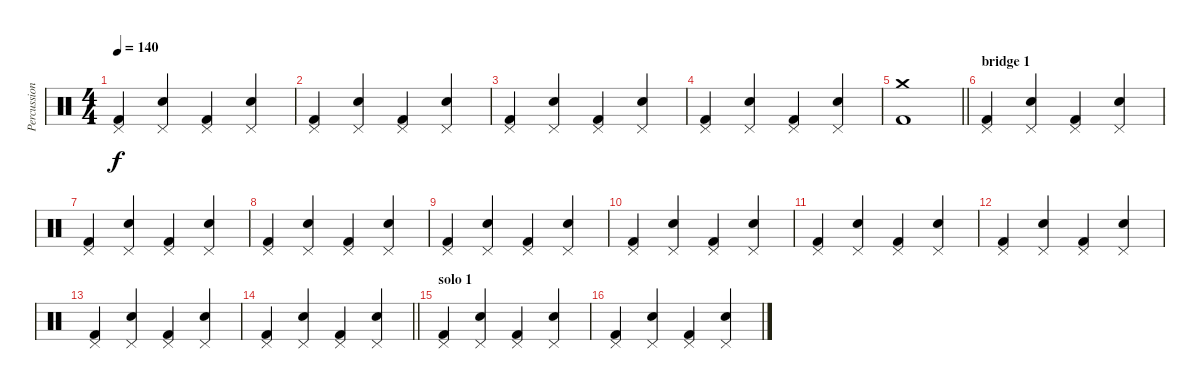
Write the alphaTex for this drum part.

\track ("Percussion" "Percussion") {instrument percussion}
\staff {score}
\articulation defaults
\ts (4 4)
\tempo 140
\clef neutral
\ks c
("Kick (hit) 2" "Pedal Hi-Hat (hit)").4{dy f} ("Snare (hit) 2" "Pedal Hi-Hat (hit)").4 ("Kick (hit) 2" "Pedal Hi-Hat (hit)").4 ("Snare (hit) 2" "Pedal Hi-Hat (hit)").4 |
("Kick (hit) 2" "Pedal Hi-Hat (hit)").4 ("Snare (hit) 2" "Pedal Hi-Hat (hit)").4 ("Kick (hit) 2" "Pedal Hi-Hat (hit)").4 ("Snare (hit) 2" "Pedal Hi-Hat (hit)").4 |
("Kick (hit) 2" "Pedal Hi-Hat (hit)").4 ("Snare (hit) 2" "Pedal Hi-Hat (hit)").4 ("Kick (hit) 2" "Pedal Hi-Hat (hit)").4 ("Snare (hit) 2" "Pedal Hi-Hat (hit)").4 |
("Kick (hit) 2" "Pedal Hi-Hat (hit)").4 ("Snare (hit) 2" "Pedal Hi-Hat (hit)").4 ("Kick (hit) 2" "Pedal Hi-Hat (hit)").4 ("Snare (hit) 2" "Pedal Hi-Hat (hit)").4 |
\barLineRight lightlight
("Kick (hit) 2" "Crash medium (hit)").1 |
\section ("" "bridge 1")
("Kick (hit) 2" "Pedal Hi-Hat (hit)").4 ("Snare (hit) 2" "Pedal Hi-Hat (hit)").4 ("Kick (hit) 2" "Pedal Hi-Hat (hit)").4 ("Snare (hit) 2" "Pedal Hi-Hat (hit)").4 |
("Kick (hit) 2" "Pedal Hi-Hat (hit)").4 ("Snare (hit) 2" "Pedal Hi-Hat (hit)").4 ("Kick (hit) 2" "Pedal Hi-Hat (hit)").4 ("Snare (hit) 2" "Pedal Hi-Hat (hit)").4 |
("Kick (hit) 2" "Pedal Hi-Hat (hit)").4 ("Snare (hit) 2" "Pedal Hi-Hat (hit)").4 ("Kick (hit) 2" "Pedal Hi-Hat (hit)").4 ("Snare (hit) 2" "Pedal Hi-Hat (hit)").4 |
("Kick (hit) 2" "Pedal Hi-Hat (hit)").4 ("Snare (hit) 2" "Pedal Hi-Hat (hit)").4 ("Kick (hit) 2" "Pedal Hi-Hat (hit)").4 ("Snare (hit) 2" "Pedal Hi-Hat (hit)").4 |
("Kick (hit) 2" "Pedal Hi-Hat (hit)").4 ("Snare (hit) 2" "Pedal Hi-Hat (hit)").4 ("Kick (hit) 2" "Pedal Hi-Hat (hit)").4 ("Snare (hit) 2" "Pedal Hi-Hat (hit)").4 |
("Kick (hit) 2" "Pedal Hi-Hat (hit)").4 ("Snare (hit) 2" "Pedal Hi-Hat (hit)").4 ("Kick (hit) 2" "Pedal Hi-Hat (hit)").4 ("Snare (hit) 2" "Pedal Hi-Hat (hit)").4 |
("Kick (hit) 2" "Pedal Hi-Hat (hit)").4 ("Snare (hit) 2" "Pedal Hi-Hat (hit)").4 ("Kick (hit) 2" "Pedal Hi-Hat (hit)").4 ("Snare (hit) 2" "Pedal Hi-Hat (hit)").4 |
("Kick (hit) 2" "Pedal Hi-Hat (hit)").4 ("Snare (hit) 2" "Pedal Hi-Hat (hit)").4 ("Kick (hit) 2" "Pedal Hi-Hat (hit)").4 ("Snare (hit) 2" "Pedal Hi-Hat (hit)").4 |
\barLineRight lightlight
("Kick (hit) 2" "Pedal Hi-Hat (hit)").4 ("Snare (hit) 2" "Pedal Hi-Hat (hit)").4 ("Kick (hit) 2" "Pedal Hi-Hat (hit)").4 ("Snare (hit) 2" "Pedal Hi-Hat (hit)").4 |
\section ("" "solo 1")
("Kick (hit) 2" "Pedal Hi-Hat (hit)").4 ("Snare (hit) 2" "Pedal Hi-Hat (hit)").4 ("Kick (hit) 2" "Pedal Hi-Hat (hit)").4 ("Snare (hit) 2" "Pedal Hi-Hat (hit)").4 |
("Kick (hit) 2" "Pedal Hi-Hat (hit)").4 ("Snare (hit) 2" "Pedal Hi-Hat (hit)").4 ("Kick (hit) 2" "Pedal Hi-Hat (hit)").4 ("Snare (hit) 2" "Pedal Hi-Hat (hit)").4
